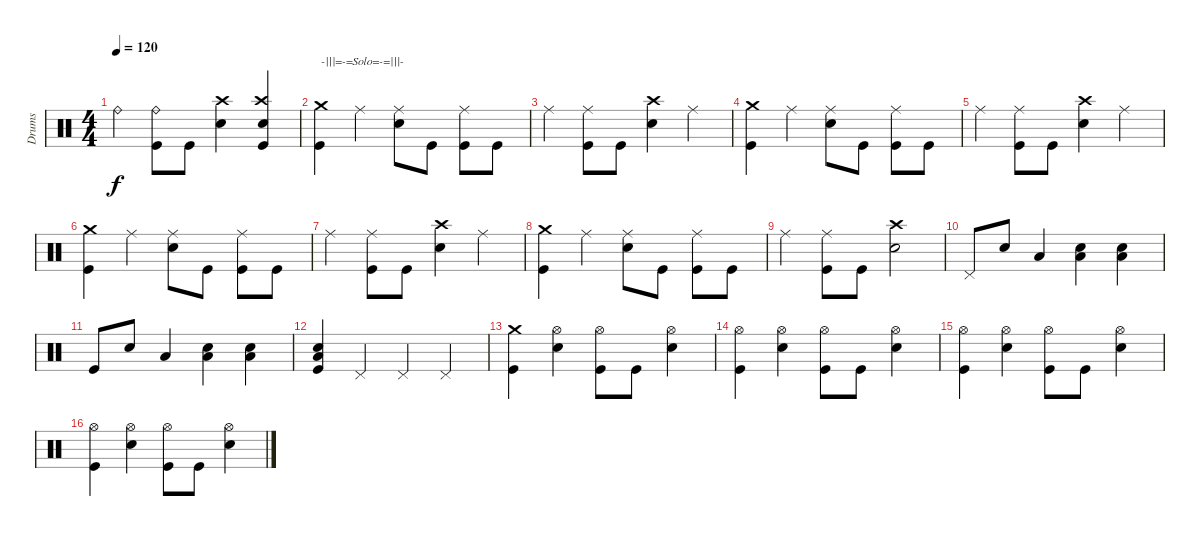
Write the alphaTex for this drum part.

\track ("Drums" "Drums") {instrument percussion}
\staff {score}
\articulation defaults
\ts (4 4)
\tempo 120
\clef neutral
\ks c "Ride (bell)".4{dy f}
("Ride (bell)" "Kick (hit)").8 "Kick (hit)".8 ("Crash high (hit)" "Snare (hit) 2").4 ("Crash high (hit)" "Snare (hit) 2" "Kick (hit)").4 |
("Crash medium (hit)" "Kick (hit)").4{txt "-|||=-=Solo=-=|||-"} "Ride (middle)".4 ("Ride (middle)" "Snare (hit) 2").8 "Kick (hit)".8 ("Ride (middle)" "Kick (hit)").8 "Kick (hit)".8 |
"Ride (middle)".4 ("Ride (middle)" "Kick (hit)").8 "Kick (hit)".8 ("Crash high (hit)" "Snare (hit) 2").4 "Ride (middle)".4 |
("Crash medium (hit)" "Kick (hit)").4 "Ride (middle)".4 ("Ride (middle)" "Snare (hit) 2").8 "Kick (hit)".8 ("Ride (middle)" "Kick (hit)").8 "Kick (hit)".8 |
"Ride (middle)".4 ("Ride (middle)" "Kick (hit)").8 "Kick (hit)".8 ("Crash high (hit)" "Snare (hit) 2").4 "Ride (middle)".4 |
("Crash medium (hit)" "Kick (hit)").4 "Ride (middle)".4 ("Ride (middle)" "Snare (hit) 2").8 "Kick (hit)".8 ("Ride (middle)" "Kick (hit)").8 "Kick (hit)".8 |
"Ride (middle)".4 ("Ride (middle)" "Kick (hit)").8 "Kick (hit)".8 ("Crash high (hit)" "Snare (hit) 2").4 "Ride (middle)".4 |
("Crash medium (hit)" "Kick (hit)").4 "Ride (middle)".4 ("Ride (middle)" "Snare (hit) 2").8 "Kick (hit)".8 ("Ride (middle)" "Kick (hit)").8 "Kick (hit)".8 |
"Ride (middle)".4 ("Ride (middle)" "Kick (hit)").8 "Kick (hit)".8 ("Crash high (hit)" "Snare (hit) 2").2 |
"Pedal Hi-Hat (hit)".8 "Snare (hit) 2".8 "Low Floor Tom (hit)".4 ("Low Floor Tom (hit)" "Snare (hit) 2").4 ("Low Floor Tom (hit)" "Snare (hit) 2").4 |
"Kick (hit)".8 "Snare (hit) 2".8 "Low Floor Tom (hit)".4 ("Low Floor Tom (hit)" "Snare (hit) 2").4 ("Low Floor Tom (hit)" "Snare (hit) 2").4 |
("Low Floor Tom (hit)" "Snare (hit) 2" "Kick (hit)").4 "Pedal Hi-Hat (hit)".4 "Pedal Hi-Hat (hit)".4 "Pedal Hi-Hat (hit)".4 |
("Crash medium (hit)" "Kick (hit)").4 ("Hi-Hat (open)" "Snare (hit) 2").4 ("Hi-Hat (open)" "Kick (hit)").8 "Kick (hit)".8 ("Hi-Hat (open)" "Snare (hit) 2").4 |
("Hi-Hat (open)" "Kick (hit)").4 ("Hi-Hat (open)" "Snare (hit) 2").4 ("Hi-Hat (open)" "Kick (hit)").8 "Kick (hit)".8 ("Hi-Hat (open)" "Snare (hit) 2").4 |
("Hi-Hat (open)" "Kick (hit)").4 ("Hi-Hat (open)" "Snare (hit) 2").4 ("Hi-Hat (open)" "Kick (hit)").8 "Kick (hit)".8 ("Hi-Hat (open)" "Snare (hit) 2").4 |
("Hi-Hat (open)" "Kick (hit)").4 ("Hi-Hat (open)" "Snare (hit) 2").4 ("Hi-Hat (open)" "Kick (hit)").8 "Kick (hit)".8 ("Hi-Hat (open)" "Snare (hit) 2").4
